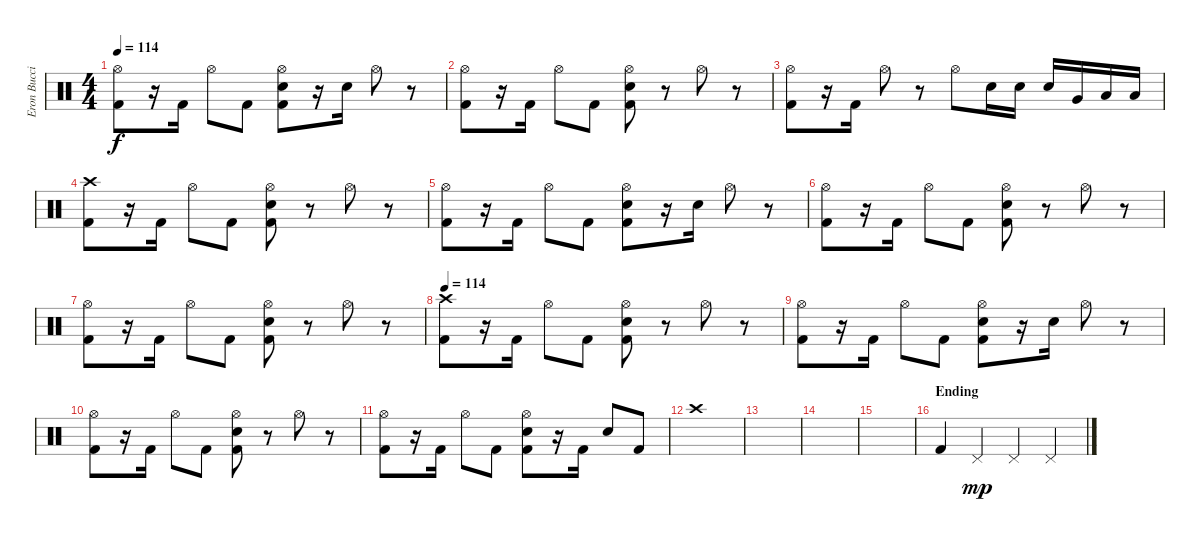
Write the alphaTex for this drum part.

\track ("Eron Bucciarelli (Drums)" "Eron Bucci") {instrument percussion}
\staff {score}
\articulation defaults
\ts (4 4)
\tempo 114
\clef neutral
\ks c
("Hi-Hat (open)" "Kick (hit) 2").8{dy f} r.16 "Kick (hit) 2".16 "Hi-Hat (open)".8 "Kick (hit) 2".8 ("Hi-Hat (open)" "Snare (hit) 2" "Kick (hit) 2").8 r.16 "Snare (hit) 2".16 "Hi-Hat (open)".8 r.8 |
("Hi-Hat (open)" "Kick (hit) 2").8 r.16 "Kick (hit) 2".16 "Hi-Hat (open)".8 "Kick (hit) 2".8 ("Hi-Hat (open)" "Snare (hit) 2" "Kick (hit) 2").8 r.8 "Hi-Hat (open)".8 r.8 |
("Hi-Hat (open)" "Kick (hit) 2").8 r.16 "Kick (hit) 2".16 "Hi-Hat (open)".8 r.8 "Hi-Hat (open)".8 "Snare (hit) 2".16 "Snare (hit) 2".16 "Snare (hit) 2".16 "Very Low Tom (hit)".16 "Low Floor Tom (hit)".16 "Low Floor Tom (hit)".16 |
("Crash high (hit)" "Kick (hit) 2").8 r.16 "Kick (hit) 2".16 "Hi-Hat (open)".8 "Kick (hit) 2".8 ("Hi-Hat (open)" "Snare (hit) 2" "Kick (hit) 2").8 r.8 "Hi-Hat (open)".8 r.8 |
("Hi-Hat (open)" "Kick (hit) 2").8 r.16 "Kick (hit) 2".16 "Hi-Hat (open)".8 "Kick (hit) 2".8 ("Hi-Hat (open)" "Snare (hit) 2" "Kick (hit) 2").8 r.16 "Snare (hit) 2".16 "Hi-Hat (open)".8 r.8 |
("Hi-Hat (open)" "Kick (hit) 2").8 r.16 "Kick (hit) 2".16 "Hi-Hat (open)".8 "Kick (hit) 2".8 ("Hi-Hat (open)" "Snare (hit) 2" "Kick (hit) 2").8 r.8 "Hi-Hat (open)".8 r.8 |
("Hi-Hat (open)" "Kick (hit) 2").8 r.16 "Kick (hit) 2".16 "Hi-Hat (open)".8 "Kick (hit) 2".8 ("Hi-Hat (open)" "Snare (hit) 2" "Kick (hit) 2").8 r.8 "Hi-Hat (open)".8 r.8 |
\tempo 114
("Crash high (hit)" "Kick (hit) 2").8 r.16 "Kick (hit) 2".16 "Hi-Hat (open)".8 "Kick (hit) 2".8 ("Hi-Hat (open)" "Snare (hit) 2" "Kick (hit) 2").8 r.8 "Hi-Hat (open)".8 r.8 |
("Hi-Hat (open)" "Kick (hit) 2").8 r.16 "Kick (hit) 2".16 "Hi-Hat (open)".8 "Kick (hit) 2".8 ("Hi-Hat (open)" "Snare (hit) 2" "Kick (hit) 2").8 r.16 "Snare (hit) 2".16 "Hi-Hat (open)".8 r.8 |
("Hi-Hat (open)" "Kick (hit) 2").8 r.16 "Kick (hit) 2".16 "Hi-Hat (open)".8 "Kick (hit) 2".8 ("Hi-Hat (open)" "Snare (hit) 2" "Kick (hit) 2").8 r.8 "Hi-Hat (open)".8 r.8 |
("Hi-Hat (open)" "Kick (hit) 2").8 r.16 "Kick (hit) 2".16 "Hi-Hat (open)".8 "Kick (hit) 2".8 ("Hi-Hat (open)" "Snare (hit) 2" "Kick (hit) 2").8 r.16 "Kick (hit) 2".16 "Snare (hit) 2".8 "Kick (hit) 2".8 |
"Crash high (hit)".1 |
|
|
|
\section ("" "Ending")
"Kick (hit) 2".4 "Pedal Hi-Hat (hit)".4{dy mp} "Pedal Hi-Hat (hit)".4 "Pedal Hi-Hat (hit)".4
